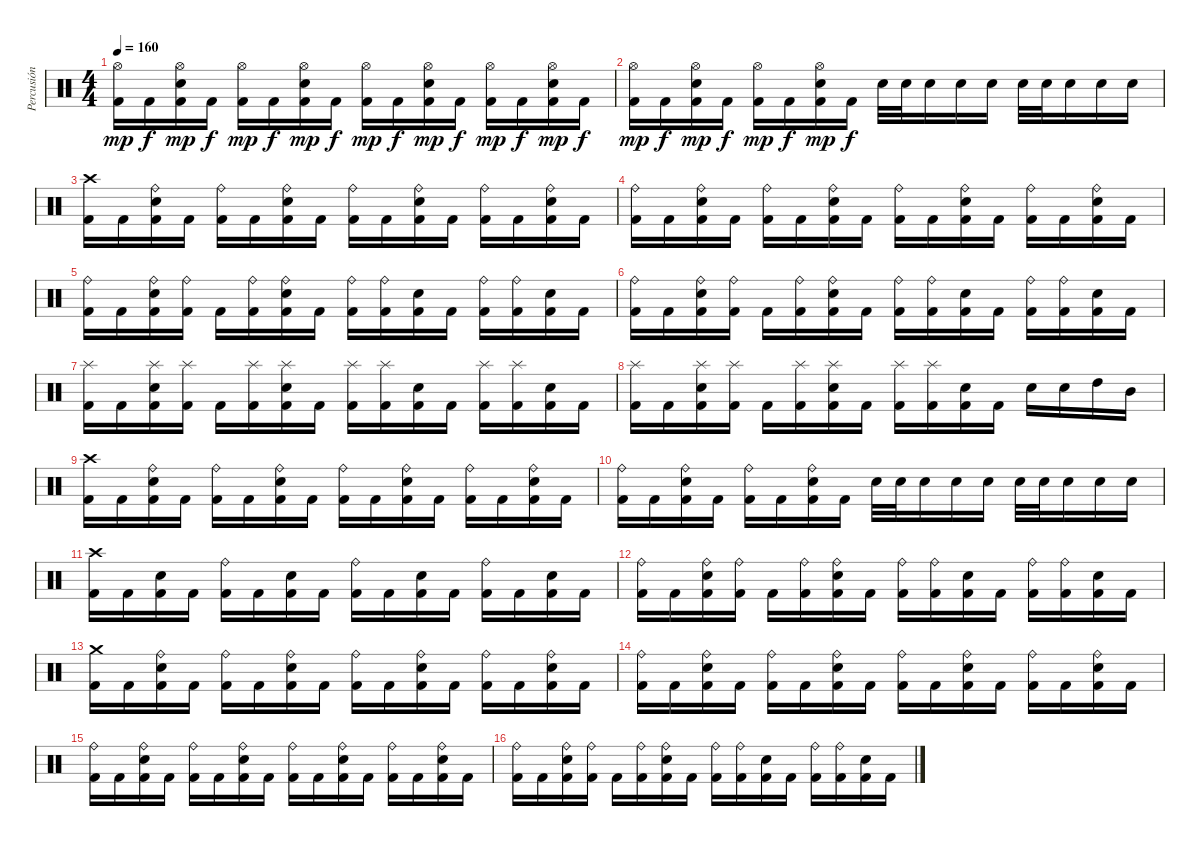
\track ("Percusión" "Percusión") {instrument percussion}
\staff {score}
\articulation defaults
\ts (4 4)
\tempo 160
\clef neutral
\ks c
("Hi-Hat (open)" "Kick (hit) 2").16{dy mp} "Kick (hit) 2".16{dy f} ("Hi-Hat (open)" "Snare (hit) 2" "Kick (hit) 2").16{dy mp} "Kick (hit) 2".16{dy f} ("Hi-Hat (open)" "Kick (hit) 2").16{dy mp} "Kick (hit) 2".16{dy f} ("Hi-Hat (open)" "Snare (hit) 2" "Kick (hit) 2").16{dy mp} "Kick (hit) 2".16{dy f} ("Hi-Hat (open)" "Kick (hit) 2").16{dy mp} "Kick (hit) 2".16{dy f} ("Hi-Hat (open)" "Snare (hit) 2" "Kick (hit) 2").16{dy mp} "Kick (hit) 2".16{dy f} ("Hi-Hat (open)" "Kick (hit) 2").16{dy mp} "Kick (hit) 2".16{dy f} ("Hi-Hat (open)" "Snare (hit) 2" "Kick (hit) 2").16{dy mp} "Kick (hit) 2".16{dy f} |
("Hi-Hat (open)" "Kick (hit) 2").16{dy mp} "Kick (hit) 2".16{dy f} ("Hi-Hat (open)" "Snare (hit) 2" "Kick (hit) 2").16{dy mp} "Kick (hit) 2".16{dy f} ("Hi-Hat (open)" "Kick (hit) 2").16{dy mp} "Kick (hit) 2".16{dy f} ("Hi-Hat (open)" "Snare (hit) 2" "Kick (hit) 2").16{dy mp} "Kick (hit) 2".16{dy f} "Snare (hit) 2".32 "Snare (hit) 2".32 "Snare (hit) 2".16 "Snare (hit) 2".16 "Snare (hit) 2".16 "Snare (hit) 2".32 "Snare (hit) 2".32 "Snare (hit) 2".16 "Snare (hit) 2".16 "Snare (hit) 2".16 |
("Crash high (hit)" "Kick (hit) 2").16 "Kick (hit) 2".16 ("Ride (bell)" "Snare (hit) 2" "Kick (hit) 2").16 "Kick (hit) 2".16 ("Ride (bell)" "Kick (hit) 2").16 "Kick (hit) 2".16 ("Ride (bell)" "Snare (hit) 2" "Kick (hit) 2").16 "Kick (hit) 2".16 ("Ride (bell)" "Kick (hit) 2").16 "Kick (hit) 2".16 ("Ride (bell)" "Snare (hit) 2" "Kick (hit) 2").16 "Kick (hit) 2".16 ("Ride (bell)" "Kick (hit) 2").16 "Kick (hit) 2".16 ("Ride (bell)" "Snare (hit) 2" "Kick (hit) 2").16 "Kick (hit) 2".16 |
("Ride (bell)" "Kick (hit) 2").16 "Kick (hit) 2".16 ("Ride (bell)" "Snare (hit) 2" "Kick (hit) 2").16 "Kick (hit) 2".16 ("Ride (bell)" "Kick (hit) 2").16 "Kick (hit) 2".16 ("Ride (bell)" "Snare (hit) 2" "Kick (hit) 2").16 "Kick (hit) 2".16 ("Ride (bell)" "Kick (hit) 2").16 "Kick (hit) 2".16 ("Ride (bell)" "Snare (hit) 2" "Kick (hit) 2").16 "Kick (hit) 2".16 ("Ride (bell)" "Kick (hit) 2").16 "Kick (hit) 2".16 ("Ride (bell)" "Snare (hit) 2" "Kick (hit) 2").16 "Kick (hit) 2".16 |
("Ride (bell)" "Kick (hit) 2").16 "Kick (hit) 2".16 ("Ride (bell)" "Snare (hit) 2" "Kick (hit) 2").16 ("Ride (bell)" "Kick (hit) 2").16 "Kick (hit) 2".16 ("Ride (bell)" "Kick (hit) 2").16 ("Ride (bell)" "Snare (hit) 2" "Kick (hit) 2").16 "Kick (hit) 2".16 ("Ride (bell)" "Kick (hit) 2").16 ("Ride (bell)" "Kick (hit) 2").16 ("Snare (hit) 2" "Kick (hit) 2").16 "Kick (hit) 2".16 ("Ride (bell)" "Kick (hit) 2").16 ("Ride (bell)" "Kick (hit) 2").16 ("Snare (hit) 2" "Kick (hit) 2").16 "Kick (hit) 2".16 |
("Ride (bell)" "Kick (hit) 2").16 "Kick (hit) 2".16 ("Ride (bell)" "Snare (hit) 2" "Kick (hit) 2").16 ("Ride (bell)" "Kick (hit) 2").16 "Kick (hit) 2".16 ("Ride (bell)" "Kick (hit) 2").16 ("Ride (bell)" "Snare (hit) 2" "Kick (hit) 2").16 "Kick (hit) 2".16 ("Ride (bell)" "Kick (hit) 2").16 ("Ride (bell)" "Kick (hit) 2").16 ("Snare (hit) 2" "Kick (hit) 2").16 "Kick (hit) 2".16 ("Ride (bell)" "Kick (hit) 2").16 ("Ride (bell)" "Kick (hit) 2").16 ("Snare (hit) 2" "Kick (hit) 2").16 "Kick (hit) 2".16 |
("Splash (hit)" "Kick (hit) 2").16 "Kick (hit) 2".16 ("Splash (hit)" "Snare (hit) 2" "Kick (hit) 2").16 ("Splash (hit)" "Kick (hit) 2").16 "Kick (hit) 2".16 ("Splash (hit)" "Kick (hit) 2").16 ("Splash (hit)" "Snare (hit) 2" "Kick (hit) 2").16 "Kick (hit) 2".16 ("Splash (hit)" "Kick (hit) 2").16 ("Splash (hit)" "Kick (hit) 2").16 ("Snare (hit) 2" "Kick (hit) 2").16 "Kick (hit) 2".16 ("Splash (hit)" "Kick (hit) 2").16 ("Splash (hit)" "Kick (hit) 2").16 ("Snare (hit) 2" "Kick (hit) 2").16 "Kick (hit) 2".16 |
("Splash (hit)" "Kick (hit) 2").16 "Kick (hit) 2".16 ("Splash (hit)" "Snare (hit) 2" "Kick (hit) 2").16 ("Splash (hit)" "Kick (hit) 2").16 "Kick (hit) 2".16 ("Splash (hit)" "Kick (hit) 2").16 ("Splash (hit)" "Snare (hit) 2" "Kick (hit) 2").16 "Kick (hit) 2".16 ("Splash (hit)" "Kick (hit) 2").16 ("Splash (hit)" "Kick (hit) 2").16 ("Snare (hit) 2" "Kick (hit) 2").16 "Kick (hit) 2".16 "Snare (hit) 2".16 "Snare (hit) 2".16 "High Tom (hit)".16 "Mid Tom (hit)".16 |
("Crash high (hit)" "Kick (hit) 2").16 "Kick (hit) 2".16 ("Ride (bell)" "Snare (hit) 2" "Kick (hit) 2").16 "Kick (hit) 2".16 ("Ride (bell)" "Kick (hit) 2").16 "Kick (hit) 2".16 ("Ride (bell)" "Snare (hit) 2" "Kick (hit) 2").16 "Kick (hit) 2".16 ("Ride (bell)" "Kick (hit) 2").16 "Kick (hit) 2".16 ("Ride (bell)" "Snare (hit) 2" "Kick (hit) 2").16 "Kick (hit) 2".16 ("Ride (bell)" "Kick (hit) 2").16 "Kick (hit) 2".16 ("Ride (bell)" "Snare (hit) 2" "Kick (hit) 2").16 "Kick (hit) 2".16 |
("Ride (bell)" "Kick (hit) 2").16 "Kick (hit) 2".16 ("Ride (bell)" "Snare (hit) 2" "Kick (hit) 2").16 "Kick (hit) 2".16 ("Ride (bell)" "Kick (hit) 2").16 "Kick (hit) 2".16 ("Ride (bell)" "Snare (hit) 2" "Kick (hit) 2").16 "Kick (hit) 2".16 "Snare (hit) 2".32 "Snare (hit) 2".32 "Snare (hit) 2".16 "Snare (hit) 2".16 "Snare (hit) 2".16 "Snare (hit) 2".32 "Snare (hit) 2".32 "Snare (hit) 2".16 "Snare (hit) 2".16 "Snare (hit) 2".16 |
("Crash high (hit)" "Kick (hit) 2").16 "Kick (hit) 2".16 ("Snare (hit) 2" "Kick (hit) 2").16 "Kick (hit) 2".16 ("Ride (bell)" "Kick (hit) 2").16 "Kick (hit) 2".16 ("Snare (hit) 2" "Kick (hit) 2").16 "Kick (hit) 2".16 ("Ride (bell)" "Kick (hit) 2").16 "Kick (hit) 2".16 ("Snare (hit) 2" "Kick (hit) 2").16 "Kick (hit) 2".16 ("Ride (bell)" "Kick (hit) 2").16 "Kick (hit) 2".16 ("Snare (hit) 2" "Kick (hit) 2").16 "Kick (hit) 2".16 |
("Ride (bell)" "Kick (hit) 2").16 "Kick (hit) 2".16 ("Ride (bell)" "Snare (hit) 2" "Kick (hit) 2").16 ("Ride (bell)" "Kick (hit) 2").16 "Kick (hit) 2".16 ("Ride (bell)" "Kick (hit) 2").16 ("Ride (bell)" "Snare (hit) 2" "Kick (hit) 2").16 "Kick (hit) 2".16 ("Ride (bell)" "Kick (hit) 2").16 ("Ride (bell)" "Kick (hit) 2").16 ("Snare (hit) 2" "Kick (hit) 2").16 "Kick (hit) 2".16 ("Ride (bell)" "Kick (hit) 2").16 ("Ride (bell)" "Kick (hit) 2").16 ("Snare (hit) 2" "Kick (hit) 2").16 "Kick (hit) 2".16 |
("Crash medium (hit)" "Kick (hit) 2").16 "Kick (hit) 2".16 ("Ride (bell)" "Snare (hit) 2" "Kick (hit) 2").16 "Kick (hit) 2".16 ("Ride (bell)" "Kick (hit) 2").16 "Kick (hit) 2".16 ("Ride (bell)" "Snare (hit) 2" "Kick (hit) 2").16 "Kick (hit) 2".16 ("Ride (bell)" "Kick (hit) 2").16 "Kick (hit) 2".16 ("Ride (bell)" "Snare (hit) 2" "Kick (hit) 2").16 "Kick (hit) 2".16 ("Ride (bell)" "Kick (hit) 2").16 "Kick (hit) 2".16 ("Ride (bell)" "Snare (hit) 2" "Kick (hit) 2").16 "Kick (hit) 2".16 |
("Ride (bell)" "Kick (hit) 2").16 "Kick (hit) 2".16 ("Ride (bell)" "Snare (hit) 2" "Kick (hit) 2").16 "Kick (hit) 2".16 ("Ride (bell)" "Kick (hit) 2").16 "Kick (hit) 2".16 ("Ride (bell)" "Snare (hit) 2" "Kick (hit) 2").16 "Kick (hit) 2".16 ("Ride (bell)" "Kick (hit) 2").16 "Kick (hit) 2".16 ("Ride (bell)" "Snare (hit) 2" "Kick (hit) 2").16 "Kick (hit) 2".16 ("Ride (bell)" "Kick (hit) 2").16 "Kick (hit) 2".16 ("Ride (bell)" "Snare (hit) 2" "Kick (hit) 2").16 "Kick (hit) 2".16 |
("Ride (bell)" "Kick (hit) 2").16 "Kick (hit) 2".16 ("Ride (bell)" "Snare (hit) 2" "Kick (hit) 2").16 "Kick (hit) 2".16 ("Ride (bell)" "Kick (hit) 2").16 "Kick (hit) 2".16 ("Ride (bell)" "Snare (hit) 2" "Kick (hit) 2").16 "Kick (hit) 2".16 ("Ride (bell)" "Kick (hit) 2").16 "Kick (hit) 2".16 ("Ride (bell)" "Snare (hit) 2" "Kick (hit) 2").16 "Kick (hit) 2".16 ("Ride (bell)" "Kick (hit) 2").16 "Kick (hit) 2".16 ("Ride (bell)" "Snare (hit) 2" "Kick (hit) 2").16 "Kick (hit) 2".16 |
("Ride (bell)" "Kick (hit) 2").16 "Kick (hit) 2".16 ("Ride (bell)" "Snare (hit) 2" "Kick (hit) 2").16 ("Ride (bell)" "Kick (hit) 2").16 "Kick (hit) 2".16 ("Ride (bell)" "Kick (hit) 2").16 ("Ride (bell)" "Snare (hit) 2" "Kick (hit) 2").16 "Kick (hit) 2".16 ("Ride (bell)" "Kick (hit) 2").16 ("Ride (bell)" "Kick (hit) 2").16 ("Snare (hit) 2" "Kick (hit) 2").16 "Kick (hit) 2".16 ("Ride (bell)" "Kick (hit) 2").16 ("Ride (bell)" "Kick (hit) 2").16 ("Snare (hit) 2" "Kick (hit) 2").16 "Kick (hit) 2".16
